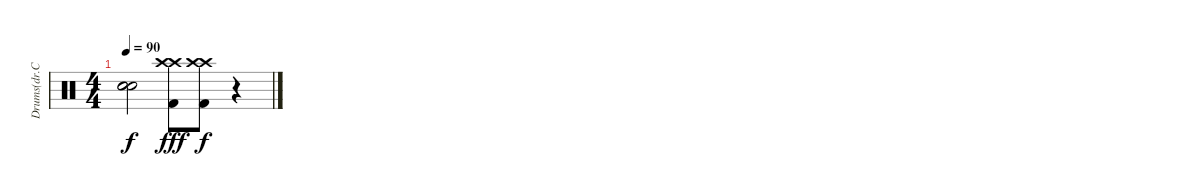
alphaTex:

\track ("Drums(dr.Chud)" "Drums(dr.C") {instrument percussion}
\staff {score}
\articulation defaults
\ts (4 4)
\tempo 90
\clef neutral
\ks c
("Snare (hit)"{t} "Snare (hit)"{t} "Snare (hit)"{t}).2{dy f} ("Crash high (hit)" "Crash high (hit)" "Kick (hit) 2").8{dy fff} ("Crash high (hit)" "Crash high (hit)" "Kick (hit) 2").8{dy f} r.4
